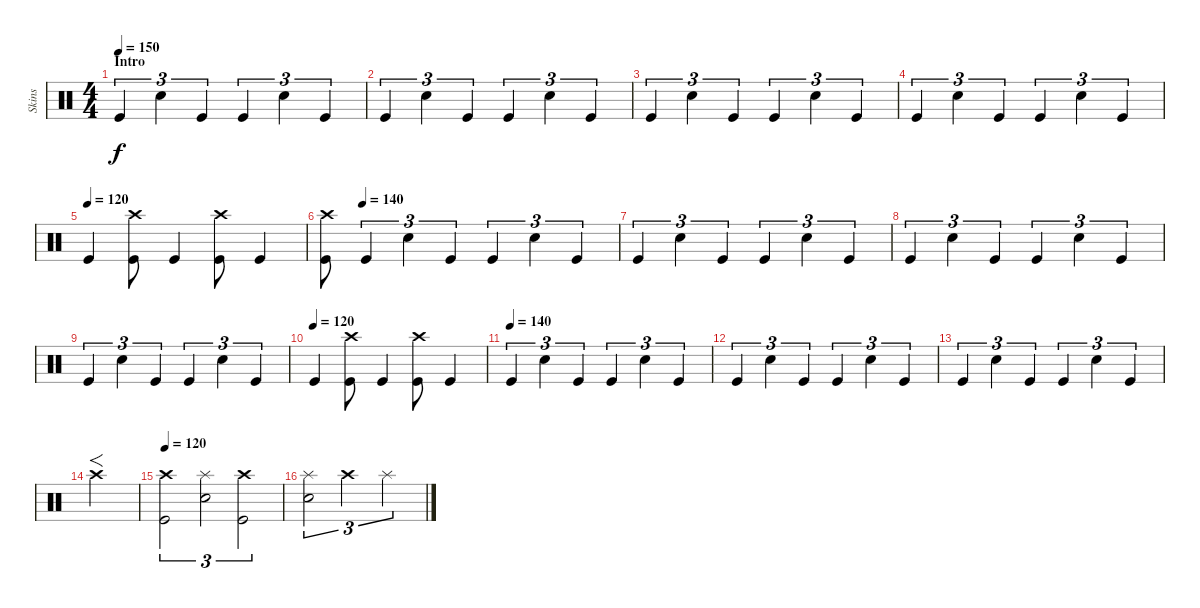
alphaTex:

\track ("Skins" "Skins") {instrument percussion}
\staff {score}
\articulation defaults
\ts (4 4)
\section ("" "Intro")
\tempo 150
\clef neutral
\ks c "Kick (hit)".4{tu (3 2) dy f} "Snare (hit) 2".4{tu (3 2)} "Kick (hit)".4{tu (3 2)} "Kick (hit)".4{tu (3 2)} "Snare (hit) 2".4{tu (3 2)} "Kick (hit)".4{tu (3 2)}
|
"Kick (hit)".4{tu (3 2)} "Snare (hit) 2".4{tu (3 2)} "Kick (hit)".4{tu (3 2)} "Kick (hit)".4{tu (3 2)} "Snare (hit) 2".4{tu (3 2)} "Kick (hit)".4{tu (3 2)} |
"Kick (hit)".4{tu (3 2)} "Snare (hit) 2".4{tu (3 2)} "Kick (hit)".4{tu (3 2)} "Kick (hit)".4{tu (3 2)} "Snare (hit) 2".4{tu (3 2)} "Kick (hit)".4{tu (3 2)} |
"Kick (hit)".4{tu (3 2)} "Snare (hit) 2".4{tu (3 2)} "Kick (hit)".4{tu (3 2)} "Kick (hit)".4{tu (3 2)} "Snare (hit) 2".4{tu (3 2)} "Kick (hit)".4{tu (3 2)} |
\tempo (120)
"Kick (hit)".4 ("Crash high (hit)" "Kick (hit)").8 "Kick (hit)".4 ("Crash high (hit)" "Kick (hit)").8 "Kick (hit)".4 |
\tempo (140 0.125)
("Crash high (hit)" "Kick (hit)").8 "Kick (hit)".4{tu (3 2)} "Snare (hit) 2".4{tu (3 2)} "Kick (hit)".4{tu (3 2)} "Kick (hit)".4{tu (3 2)} "Snare (hit) 2".4{tu (3 2)} "Kick (hit)".4{tu (3 2)} |
"Kick (hit)".4{tu (3 2)} "Snare (hit) 2".4{tu (3 2)} "Kick (hit)".4{tu (3 2)} "Kick (hit)".4{tu (3 2)} "Snare (hit) 2".4{tu (3 2)} "Kick (hit)".4{tu (3 2)} |
"Kick (hit)".4{tu (3 2)} "Snare (hit) 2".4{tu (3 2)} "Kick (hit)".4{tu (3 2)} "Kick (hit)".4{tu (3 2)} "Snare (hit) 2".4{tu (3 2)} "Kick (hit)".4{tu (3 2)} |
"Kick (hit)".4{tu (3 2)} "Snare (hit) 2".4{tu (3 2)} "Kick (hit)".4{tu (3 2)} "Kick (hit)".4{tu (3 2)} "Snare (hit) 2".4{tu (3 2)} "Kick (hit)".4{tu (3 2)} |
\tempo (120)
"Kick (hit)".4 ("Crash high (hit)" "Kick (hit)").8 "Kick (hit)".4 ("Crash high (hit)" "Kick (hit)").8 "Kick (hit)".4 |
\tempo (140)
"Kick (hit)".4{tu (3 2)} "Snare (hit) 2".4{tu (3 2)} "Kick (hit)".4{tu (3 2)} "Kick (hit)".4{tu (3 2)} "Snare (hit) 2".4{tu (3 2)} "Kick (hit)".4{tu (3 2)} |
"Kick (hit)".4{tu (3 2)} "Snare (hit) 2".4{tu (3 2)} "Kick (hit)".4{tu (3 2)} "Kick (hit)".4{tu (3 2)} "Snare (hit) 2".4{tu (3 2)} "Kick (hit)".4{tu (3 2)} |
"Kick (hit)".4{tu (3 2)} "Snare (hit) 2".4{tu (3 2)} "Kick (hit)".4{tu (3 2)} "Kick (hit)".4{tu (3 2)} "Snare (hit) 2".4{tu (3 2)} "Kick (hit)".4{tu (3 2)} |
"Crash high (hit)".2{f} |
\tempo 120
("Crash high (hit)" "Kick (hit)").2{tu (3 2)} ("Splash (hit)" "Snare (hit) 2").2{tu (3 2)} ("Crash high (hit)" "Kick (hit)").2{tu (3 2)} |
("Splash (hit)" "Snare (hit) 2").2{tu (3 2)} "Crash high (hit)".2{tu (3 2)} "Splash (hit)".2{tu (3 2)}
